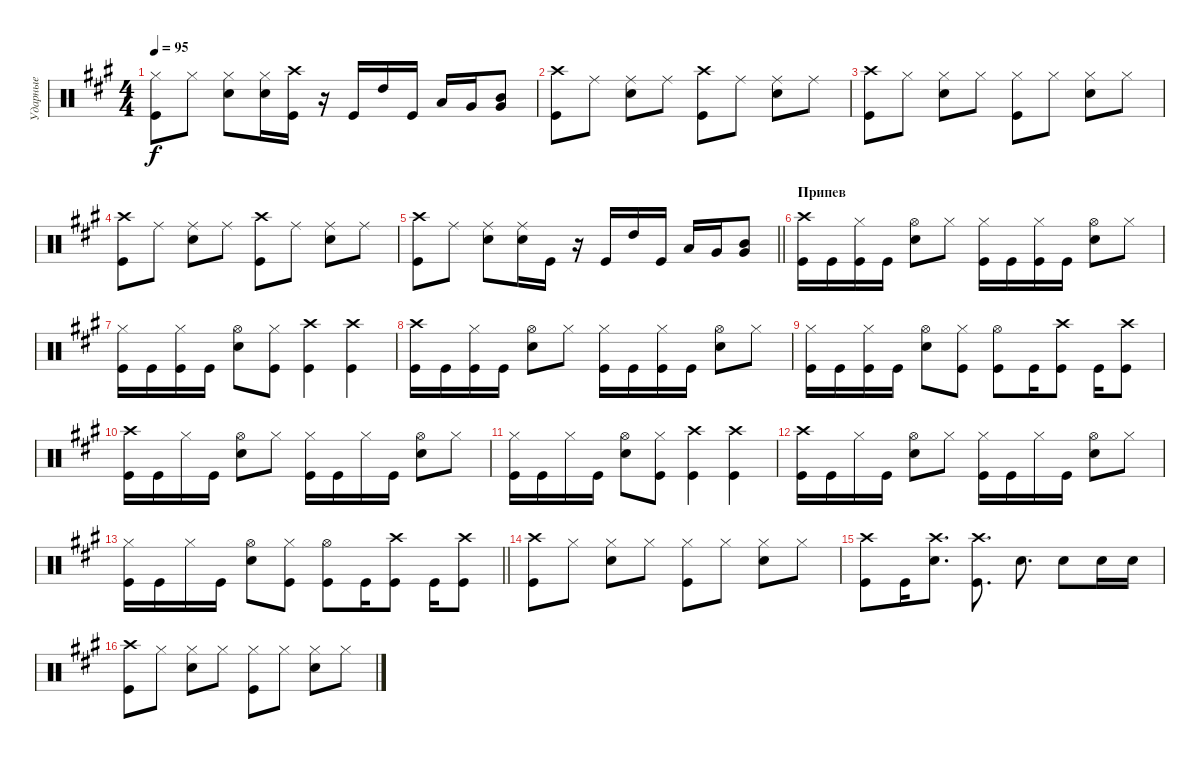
\track ("Ударные" "Ударные") {instrument percussion}
\staff {score}
\articulation defaults
\ts (4 4)
\tempo 95
\clef neutral
\ks a
("Hi-Hat (closed)" "Kick (hit)").8{dy f} "Hi-Hat (closed)".8 ("Hi-Hat (closed)" "Snare (hit) 2").8 ("Hi-Hat (closed)" "Snare (hit) 2").16 ("Crash high (hit)" "Kick (hit)").16 r.16 "Kick (hit)".16 "High Tom (hit)".16 "Kick (hit)".16 "Low Tom (hit)".16 "Very Low Tom (hit)".16 ("Very Low Tom (hit)" "Mid Tom (hit)").8 |
("Crash high (hit)" "Kick (hit)").8 "Ride (middle)".8 ("Ride (middle)" "Snare (hit) 2").8 "Ride (middle)".8 ("Crash high (hit)" "Kick (hit)").8 "Ride (middle)".8 ("Ride (middle)" "Snare (hit) 2").8 "Ride (middle)".8 |
("Crash high (hit)" "Kick (hit)").8 "Hi-Hat (closed)".8 ("Hi-Hat (closed)" "Snare (hit) 2").8 "Hi-Hat (closed)".8 ("Hi-Hat (closed)" "Kick (hit)").8 "Hi-Hat (closed)".8 ("Hi-Hat (closed)" "Snare (hit) 2").8 "Hi-Hat (closed)".8 |
("Crash high (hit)" "Kick (hit)").8 "Ride (middle)".8 ("Ride (middle)" "Snare (hit) 2").8 "Ride (middle)".8 ("Crash high (hit)" "Kick (hit)").8 "Ride (middle)".8 ("Ride (middle)" "Snare (hit) 2").8 "Ride (middle)".8 |
\barLineRight lightlight
("Crash high (hit)" "Kick (hit)").8 "Ride (middle)".8 ("Ride (middle)" "Snare (hit) 2").8 ("Ride (middle)" "Snare (hit) 2").16 "Kick (hit)".16 r.16 "Kick (hit)".16 "High Tom (hit)".16 "Kick (hit)".16 "Low Tom (hit)".16 "Very Low Tom (hit)".16 ("Very Low Tom (hit)" "Mid Tom (hit)").8 |
\section ("" "Припев")
("Crash high (hit)" "Kick (hit)").16 "Kick (hit)".16 ("Hi-Hat (closed)" "Kick (hit)").16 "Kick (hit)".16 ("Hi-Hat (open)" "Snare (hit) 2").8 "Hi-Hat (closed)".8 ("Hi-Hat (closed)" "Kick (hit)").16 "Kick (hit)".16 ("Hi-Hat (closed)" "Kick (hit)").16 "Kick (hit)".16 ("Hi-Hat (open)" "Snare (hit) 2").8 "Hi-Hat (closed)".8 |
("Hi-Hat (closed)" "Kick (hit)").16 "Kick (hit)".16 ("Hi-Hat (closed)" "Kick (hit)").16 "Kick (hit)".16 ("Hi-Hat (open)" "Snare (hit) 2").8 ("Hi-Hat (closed)" "Kick (hit)").8 ("Crash high (hit)" "Kick (hit)").4 ("Crash high (hit)" "Kick (hit)").4 |
("Crash high (hit)" "Kick (hit)").16 "Kick (hit)".16 ("Hi-Hat (closed)" "Kick (hit)").16 "Kick (hit)".16 ("Hi-Hat (open)" "Snare (hit) 2").8 "Hi-Hat (closed)".8 ("Hi-Hat (closed)" "Kick (hit)").16 "Kick (hit)".16 ("Hi-Hat (closed)" "Kick (hit)").16 "Kick (hit)".16 ("Hi-Hat (open)" "Snare (hit) 2").8 "Hi-Hat (closed)".8 |
("Hi-Hat (closed)" "Kick (hit)").16 "Kick (hit)".16 ("Hi-Hat (closed)" "Kick (hit)").16 "Kick (hit)".16 ("Hi-Hat (open)" "Snare (hit) 2").8 ("Hi-Hat (closed)" "Kick (hit)").8 ("Hi-Hat (open)" "Kick (hit)").8 "Kick (hit)".16 ("Crash high (hit)" "Kick (hit)").8 "Kick (hit)".16 ("Crash high (hit)" "Kick (hit)").8 |
("Crash high (hit)" "Kick (hit)").16 "Kick (hit)".16 "Hi-Hat (closed)".16 "Kick (hit)".16 ("Hi-Hat (open)" "Snare (hit) 2").8 "Hi-Hat (closed)".8 ("Hi-Hat (closed)" "Kick (hit)").16 "Kick (hit)".16 "Hi-Hat (closed)".16 "Kick (hit)".16 ("Hi-Hat (open)" "Snare (hit) 2").8 "Hi-Hat (closed)".8 |
("Hi-Hat (closed)" "Kick (hit)").16 "Kick (hit)".16 "Hi-Hat (closed)".16 "Kick (hit)".16 ("Hi-Hat (open)" "Snare (hit) 2").8 ("Hi-Hat (closed)" "Kick (hit)").8 ("Crash high (hit)" "Kick (hit)").4 ("Crash high (hit)" "Kick (hit)").4 |
("Crash high (hit)" "Kick (hit)").16 "Kick (hit)".16 "Hi-Hat (closed)".16 "Kick (hit)".16 ("Hi-Hat (open)" "Snare (hit) 2").8 "Hi-Hat (closed)".8 ("Hi-Hat (closed)" "Kick (hit)").16 "Kick (hit)".16 "Hi-Hat (closed)".16 "Kick (hit)".16 ("Hi-Hat (open)" "Snare (hit) 2").8 "Hi-Hat (closed)".8 |
\barLineRight lightlight
("Hi-Hat (closed)" "Kick (hit)").16 "Kick (hit)".16 "Hi-Hat (closed)".16 "Kick (hit)".16 ("Hi-Hat (open)" "Snare (hit) 2").8 ("Hi-Hat (closed)" "Kick (hit)").8 ("Hi-Hat (open)" "Kick (hit)").8 "Kick (hit)".16 ("Crash high (hit)" "Kick (hit)").8 "Kick (hit)".16 ("Crash high (hit)" "Kick (hit)").8 |
("Crash high (hit)" "Kick (hit)").8 "Hi-Hat (closed)".8 ("Hi-Hat (closed)" "Snare (hit) 2").8 "Hi-Hat (closed)".8 ("Hi-Hat (closed)" "Kick (hit)").8 "Hi-Hat (closed)".8 ("Hi-Hat (closed)" "Snare (hit) 2").8 "Hi-Hat (closed)".8 |
("Crash high (hit)" "Kick (hit)").8 "Kick (hit)".16 ("Crash high (hit)" "Snare (hit) 2").8{d} ("Crash high (hit)" "Kick (hit)").8{d} "Snare (hit) 2".8{d} "Snare (hit) 2".8 "Snare (hit) 2".16 "Snare (hit) 2".16 |
("Crash high (hit)" "Kick (hit)").8 "Hi-Hat (closed)".8 ("Hi-Hat (closed)" "Snare (hit) 2").8 "Hi-Hat (closed)".8 ("Hi-Hat (closed)" "Kick (hit)").8 "Hi-Hat (closed)".8 ("Hi-Hat (closed)" "Snare (hit) 2").8 "Hi-Hat (closed)".8
